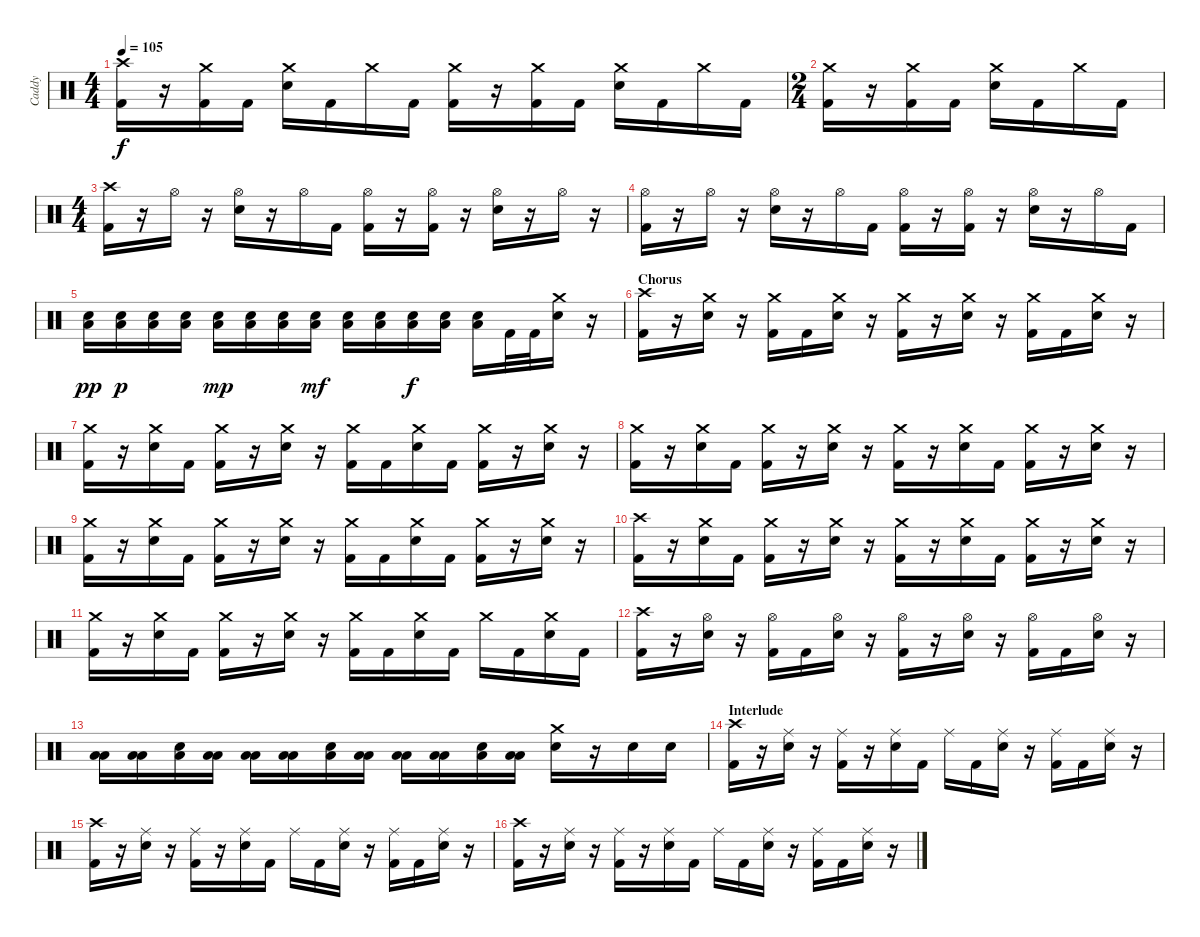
\track ("Caddy" "Caddy") {instrument percussion}
\staff {score}
\articulation defaults
\ts (4 4)
\tempo 105
\clef neutral
\ks c
("Crash high (hit)" "Kick (hit) 2").16{dy f} r.16 ("Crash medium (hit)" "Kick (hit) 2").16 "Kick (hit) 2".16 ("Crash medium (hit)" "Electric Snare (hit)").16 "Kick (hit) 2".16 "Crash medium (hit)".16 "Kick (hit) 2".16 ("Crash medium (hit)" "Kick (hit) 2").16 r.16 ("Crash medium (hit)" "Kick (hit) 2").16 "Kick (hit) 2".16 ("Crash medium (hit)" "Electric Snare (hit)").16 "Kick (hit) 2".16 "Crash medium (hit)".16 "Kick (hit) 2".16 |
\ts (2 4)
("Crash medium (hit)" "Kick (hit) 2").16 r.16 ("Crash medium (hit)" "Kick (hit) 2").16 "Kick (hit) 2".16 ("Crash medium (hit)" "Electric Snare (hit)").16 "Kick (hit) 2".16 "Crash medium (hit)".16 "Kick (hit) 2".16 |
\ts (4 4)
("Crash high (hit)" "Kick (hit) 2").16 r.16 "Hi-Hat (open)".16 r.16 ("Hi-Hat (open)" "Electric Snare (hit)").16 r.16 "Hi-Hat (open)".16 "Kick (hit) 2".16 ("Hi-Hat (open)" "Kick (hit) 2").16 r.16 ("Hi-Hat (open)" "Kick (hit) 2").16 r.16 ("Hi-Hat (open)" "Electric Snare (hit)").16 r.16 "Hi-Hat (open)".16 r.16 |
("Hi-Hat (open)" "Kick (hit) 2").16 r.16 "Hi-Hat (open)".16 r.16 ("Hi-Hat (open)" "Electric Snare (hit)").16 r.16 "Hi-Hat (open)".16 "Kick (hit) 2".16 ("Hi-Hat (open)" "Kick (hit) 2").16 r.16 ("Hi-Hat (open)" "Kick (hit) 2").16 r.16 ("Hi-Hat (open)" "Electric Snare (hit)").16 r.16 "Hi-Hat (open)".16 "Kick (hit) 2".16 |
("Electric Snare (hit)" "Low Floor Tom (hit)").16{dy pp} ("Electric Snare (hit)" "Low Floor Tom (hit)").16{dy p} ("Electric Snare (hit)" "Low Floor Tom (hit)").16 ("Electric Snare (hit)" "Low Floor Tom (hit)").16 ("Electric Snare (hit)" "Low Floor Tom (hit)").16{dy mp} ("Electric Snare (hit)" "Low Floor Tom (hit)").16 ("Electric Snare (hit)" "Low Floor Tom (hit)").16 ("Electric Snare (hit)" "Low Floor Tom (hit)").16{dy mf} ("Electric Snare (hit)" "Low Floor Tom (hit)").16 ("Electric Snare (hit)" "Low Floor Tom (hit)").16 ("Electric Snare (hit)" "Low Floor Tom (hit)").16{dy f} ("Electric Snare (hit)" "Low Floor Tom (hit)").16 ("Electric Snare (hit)" "Low Floor Tom (hit)").16 "Kick (hit) 2".32 "Kick (hit) 2".32 ("Crash medium (hit)" "Electric Snare (hit)").16 r.16 |
\section ("" "Chorus")
("Crash high (hit)" "Kick (hit) 2").16 r.16 ("Crash medium (hit)" "Electric Snare (hit)").16 r.16 ("Crash medium (hit)" "Kick (hit) 2").16 "Kick (hit) 2".16 ("Crash medium (hit)" "Electric Snare (hit)").16 r.16 ("Crash medium (hit)" "Kick (hit) 2").16 r.16 ("Crash medium (hit)" "Electric Snare (hit)").16 r.16 ("Crash medium (hit)" "Kick (hit) 2").16 "Kick (hit) 2".16 ("Crash medium (hit)" "Electric Snare (hit)").16 r.16 |
("Crash medium (hit)" "Kick (hit) 2").16 r.16 ("Crash medium (hit)" "Electric Snare (hit)").16 "Kick (hit) 2".16 ("Crash medium (hit)" "Kick (hit) 2").16 r.16 ("Crash medium (hit)" "Electric Snare (hit)").16 r.16 ("Crash medium (hit)" "Kick (hit) 2").16 "Kick (hit) 2".16 ("Crash medium (hit)" "Electric Snare (hit)").16 "Kick (hit) 2".16 ("Crash medium (hit)" "Kick (hit) 2").16 r.16 ("Crash medium (hit)" "Electric Snare (hit)").16 r.16 |
("Crash medium (hit)" "Kick (hit) 2").16 r.16 ("Crash medium (hit)" "Electric Snare (hit)").16 "Kick (hit) 2".16 ("Crash medium (hit)" "Kick (hit) 2").16 r.16 ("Crash medium (hit)" "Electric Snare (hit)").16 r.16 ("Crash medium (hit)" "Kick (hit) 2").16 r.16 ("Crash medium (hit)" "Electric Snare (hit)").16 "Kick (hit) 2".16 ("Crash medium (hit)" "Kick (hit) 2").16 r.16 ("Crash medium (hit)" "Electric Snare (hit)").16 r.16 |
("Crash medium (hit)" "Kick (hit) 2").16 r.16 ("Crash medium (hit)" "Electric Snare (hit)").16 "Kick (hit) 2".16 ("Crash medium (hit)" "Kick (hit) 2").16 r.16 ("Crash medium (hit)" "Electric Snare (hit)").16 r.16 ("Crash medium (hit)" "Kick (hit) 2").16 "Kick (hit) 2".16 ("Crash medium (hit)" "Electric Snare (hit)").16 "Kick (hit) 2".16 ("Crash medium (hit)" "Kick (hit) 2").16 r.16 ("Crash medium (hit)" "Electric Snare (hit)").16 r.16 |
("Crash high (hit)" "Kick (hit) 2").16 r.16 ("Crash medium (hit)" "Electric Snare (hit)").16 "Kick (hit) 2".16 ("Crash medium (hit)" "Kick (hit) 2").16 r.16 ("Crash medium (hit)" "Electric Snare (hit)").16 r.16 ("Crash medium (hit)" "Kick (hit) 2").16 r.16 ("Crash medium (hit)" "Electric Snare (hit)").16 "Kick (hit) 2".16 ("Crash medium (hit)" "Kick (hit) 2").16 r.16 ("Crash medium (hit)" "Electric Snare (hit)").16 r.16 |
("Crash medium (hit)" "Kick (hit) 2").16 r.16 ("Crash medium (hit)" "Electric Snare (hit)").16 "Kick (hit) 2".16 ("Crash medium (hit)" "Kick (hit) 2").16 r.16 ("Crash medium (hit)" "Electric Snare (hit)").16 r.16 ("Crash medium (hit)" "Kick (hit) 2").16 "Kick (hit) 2".16 ("Crash medium (hit)" "Electric Snare (hit)").16 "Kick (hit) 2".16 "Crash medium (hit)".16 "Kick (hit) 2".16 ("Crash medium (hit)" "Electric Snare (hit)").16 "Kick (hit) 2".16 |
("Crash high (hit)" "Kick (hit) 2").16 r.16 ("Hi-Hat (open)" "Electric Snare (hit)").16 r.16 ("Hi-Hat (open)" "Kick (hit) 2").16 "Kick (hit) 2".16 ("Hi-Hat (open)" "Electric Snare (hit)").16 r.16 ("Hi-Hat (open)" "Kick (hit) 2").16 r.16 ("Hi-Hat (open)" "Electric Snare (hit)").16 r.16 ("Hi-Hat (open)" "Kick (hit) 2").16 "Kick (hit) 2".16 ("Hi-Hat (open)" "Electric Snare (hit)").16 r.16 |
("Low Tom (hit)" "Low Floor Tom (hit)").16 ("Low Tom (hit)" "Low Floor Tom (hit)").16 ("Electric Snare (hit)" "Low Floor Tom (hit)").16 ("Low Tom (hit)" "Low Floor Tom (hit)").16 ("Low Tom (hit)" "Low Floor Tom (hit)").16 ("Low Tom (hit)" "Low Floor Tom (hit)").16 ("Electric Snare (hit)" "Low Floor Tom (hit)").16 ("Low Tom (hit)" "Low Floor Tom (hit)").16 ("Low Tom (hit)" "Low Floor Tom (hit)").16 ("Low Tom (hit)" "Low Floor Tom (hit)").16 ("Electric Snare (hit)" "Low Floor Tom (hit)").16 ("Low Tom (hit)" "Low Floor Tom (hit)").16 ("Crash medium (hit)" "Electric Snare (hit)").16 r.16 "Electric Snare (hit)".16 "Electric Snare (hit)".16 |
\section ("" "Interlude")
("Crash high (hit)" "Kick (hit) 2").16 r.16 ("Ride (middle)" "Electric Snare (hit)").16 r.16 ("Ride (middle)" "Kick (hit) 2").16 r.16 ("Ride (middle)" "Electric Snare (hit)").16 "Kick (hit) 2".16 "Ride (middle)".16 "Kick (hit) 2".16 ("Ride (middle)" "Electric Snare (hit)").16 r.16 ("Ride (middle)" "Kick (hit) 2").16 "Kick (hit) 2".16 ("Ride (middle)" "Electric Snare (hit)").16 r.16 |
("Crash high (hit)" "Kick (hit) 2").16 r.16 ("Ride (middle)" "Electric Snare (hit)").16 r.16 ("Ride (middle)" "Kick (hit) 2").16 r.16 ("Ride (middle)" "Electric Snare (hit)").16 "Kick (hit) 2".16 "Ride (middle)".16 "Kick (hit) 2".16 ("Ride (middle)" "Electric Snare (hit)").16 r.16 ("Ride (middle)" "Kick (hit) 2").16 "Kick (hit) 2".16 ("Ride (middle)" "Electric Snare (hit)").16 r.16 |
("Crash high (hit)" "Kick (hit) 2").16 r.16 ("Ride (middle)" "Electric Snare (hit)").16 r.16 ("Ride (middle)" "Kick (hit) 2").16 r.16 ("Ride (middle)" "Electric Snare (hit)").16 "Kick (hit) 2".16 "Ride (middle)".16 "Kick (hit) 2".16 ("Ride (middle)" "Electric Snare (hit)").16 r.16 ("Ride (middle)" "Kick (hit) 2").16 "Kick (hit) 2".16 ("Ride (middle)" "Electric Snare (hit)").16 r.16
